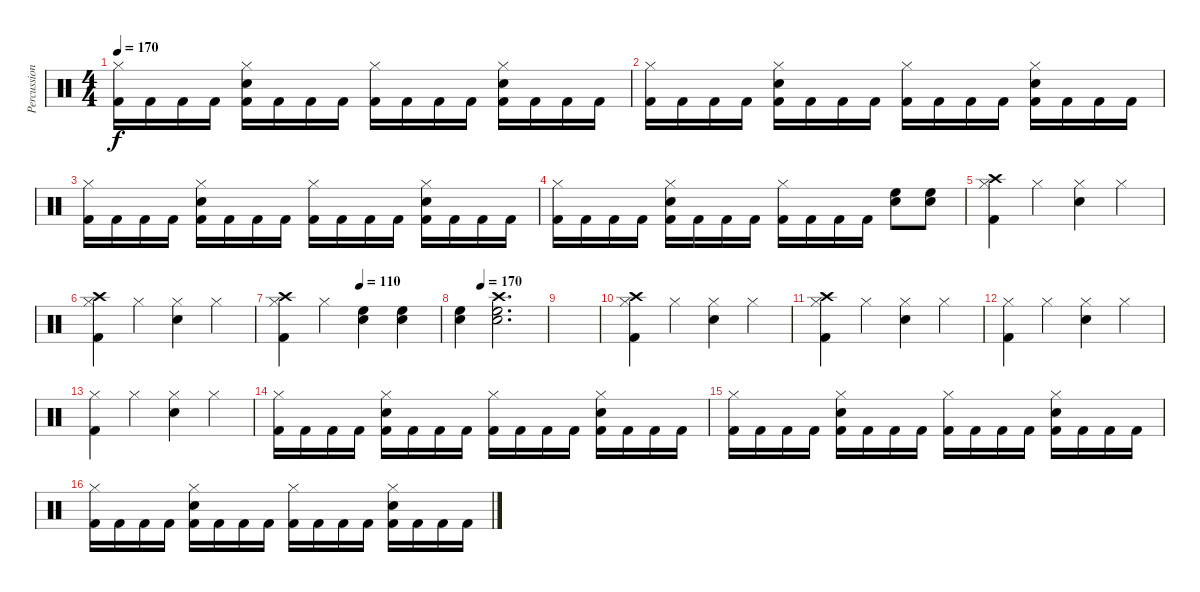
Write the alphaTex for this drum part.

\track ("Percussion" "Percussion") {instrument percussion}
\staff {score}
\articulation defaults
\ts (4 4)
\tempo 170
\clef neutral
\ks c
("Hi-Hat (closed)" "Kick (hit) 2").16{dy f} "Kick (hit) 2".16 "Kick (hit) 2".16 "Kick (hit) 2".16 ("Hi-Hat (closed)" "Electric Snare (hit)" "Kick (hit) 2").16 "Kick (hit) 2".16 "Kick (hit) 2".16 "Kick (hit) 2".16 ("Hi-Hat (closed)" "Kick (hit) 2").16 "Kick (hit) 2".16 "Kick (hit) 2".16 "Kick (hit) 2".16 ("Hi-Hat (closed)" "Electric Snare (hit)" "Kick (hit) 2").16 "Kick (hit) 2".16 "Kick (hit) 2".16 "Kick (hit) 2".16 |
("Hi-Hat (closed)" "Kick (hit) 2").16 "Kick (hit) 2".16 "Kick (hit) 2".16 "Kick (hit) 2".16 ("Hi-Hat (closed)" "Electric Snare (hit)" "Kick (hit) 2").16 "Kick (hit) 2".16 "Kick (hit) 2".16 "Kick (hit) 2".16 ("Hi-Hat (closed)" "Kick (hit) 2").16 "Kick (hit) 2".16 "Kick (hit) 2".16 "Kick (hit) 2".16 ("Hi-Hat (closed)" "Electric Snare (hit)" "Kick (hit) 2").16 "Kick (hit) 2".16 "Kick (hit) 2".16 "Kick (hit) 2".16 |
("Hi-Hat (closed)" "Kick (hit) 2").16 "Kick (hit) 2".16 "Kick (hit) 2".16 "Kick (hit) 2".16 ("Hi-Hat (closed)" "Electric Snare (hit)" "Kick (hit) 2").16 "Kick (hit) 2".16 "Kick (hit) 2".16 "Kick (hit) 2".16 ("Hi-Hat (closed)" "Kick (hit) 2").16 "Kick (hit) 2".16 "Kick (hit) 2".16 "Kick (hit) 2".16 ("Hi-Hat (closed)" "Electric Snare (hit)" "Kick (hit) 2").16 "Kick (hit) 2".16 "Kick (hit) 2".16 "Kick (hit) 2".16 |
("Hi-Hat (closed)" "Kick (hit) 2").16 "Kick (hit) 2".16 "Kick (hit) 2".16 "Kick (hit) 2".16 ("Hi-Hat (closed)" "Electric Snare (hit)" "Kick (hit) 2").16 "Kick (hit) 2".16 "Kick (hit) 2".16 "Kick (hit) 2".16 ("Hi-Hat (closed)" "Kick (hit) 2").16 "Kick (hit) 2".16 "Kick (hit) 2".16 "Kick (hit) 2".16 ("High Floor Tom (hit)" "Electric Snare (hit)").8 ("High Floor Tom (hit)" "Electric Snare (hit)").8 |
("Hi-Hat (closed)" "Kick (hit) 2" "Crash high (hit)").4 "Hi-Hat (closed)".4 ("Hi-Hat (closed)" "Electric Snare (hit)").4 "Hi-Hat (closed)".4 |
("Hi-Hat (closed)" "Kick (hit) 2" "Crash high (hit)").4 "Hi-Hat (closed)".4 ("Hi-Hat (closed)" "Electric Snare (hit)").4 "Hi-Hat (closed)".4 |
\tempo (110 0.5)
("Hi-Hat (closed)" "Kick (hit) 2" "Crash high (hit)").4 "Hi-Hat (closed)".4 ("Electric Snare (hit)" "High Floor Tom (hit)").4 ("Electric Snare (hit)" "High Floor Tom (hit)").4 |
\tempo (170 0.25)
("Electric Snare (hit)" "High Floor Tom (hit)").4 ("Electric Snare (hit)" "High Floor Tom (hit)" "Crash high (hit)").2{d} |
|
("Hi-Hat (closed)" "Kick (hit) 2" "Crash high (hit)").4 "Hi-Hat (closed)".4 ("Hi-Hat (closed)" "Electric Snare (hit)").4 "Hi-Hat (closed)".4 |
("Hi-Hat (closed)" "Kick (hit) 2" "Crash high (hit)").4 "Hi-Hat (closed)".4 ("Hi-Hat (closed)" "Electric Snare (hit)").4 "Hi-Hat (closed)".4 |
("Hi-Hat (closed)" "Kick (hit) 2").4 "Hi-Hat (closed)".4 ("Hi-Hat (closed)" "Electric Snare (hit)").4 "Hi-Hat (closed)".4 |
("Hi-Hat (closed)" "Kick (hit) 2").4 "Hi-Hat (closed)".4 ("Hi-Hat (closed)" "Electric Snare (hit)").4 "Hi-Hat (closed)".4 |
("Hi-Hat (closed)" "Kick (hit) 2").16 "Kick (hit) 2".16 "Kick (hit) 2".16 "Kick (hit) 2".16 ("Hi-Hat (closed)" "Electric Snare (hit)" "Kick (hit) 2").16 "Kick (hit) 2".16 "Kick (hit) 2".16 "Kick (hit) 2".16 ("Hi-Hat (closed)" "Kick (hit) 2").16 "Kick (hit) 2".16 "Kick (hit) 2".16 "Kick (hit) 2".16 ("Hi-Hat (closed)" "Electric Snare (hit)" "Kick (hit) 2").16 "Kick (hit) 2".16 "Kick (hit) 2".16 "Kick (hit) 2".16 |
("Hi-Hat (closed)" "Kick (hit) 2").16 "Kick (hit) 2".16 "Kick (hit) 2".16 "Kick (hit) 2".16 ("Hi-Hat (closed)" "Electric Snare (hit)" "Kick (hit) 2").16 "Kick (hit) 2".16 "Kick (hit) 2".16 "Kick (hit) 2".16 ("Hi-Hat (closed)" "Kick (hit) 2").16 "Kick (hit) 2".16 "Kick (hit) 2".16 "Kick (hit) 2".16 ("Hi-Hat (closed)" "Electric Snare (hit)" "Kick (hit) 2").16 "Kick (hit) 2".16 "Kick (hit) 2".16 "Kick (hit) 2".16 |
("Hi-Hat (closed)" "Kick (hit) 2").16 "Kick (hit) 2".16 "Kick (hit) 2".16 "Kick (hit) 2".16 ("Hi-Hat (closed)" "Electric Snare (hit)" "Kick (hit) 2").16 "Kick (hit) 2".16 "Kick (hit) 2".16 "Kick (hit) 2".16 ("Hi-Hat (closed)" "Kick (hit) 2").16 "Kick (hit) 2".16 "Kick (hit) 2".16 "Kick (hit) 2".16 ("Hi-Hat (closed)" "Electric Snare (hit)" "Kick (hit) 2").16 "Kick (hit) 2".16 "Kick (hit) 2".16 "Kick (hit) 2".16
